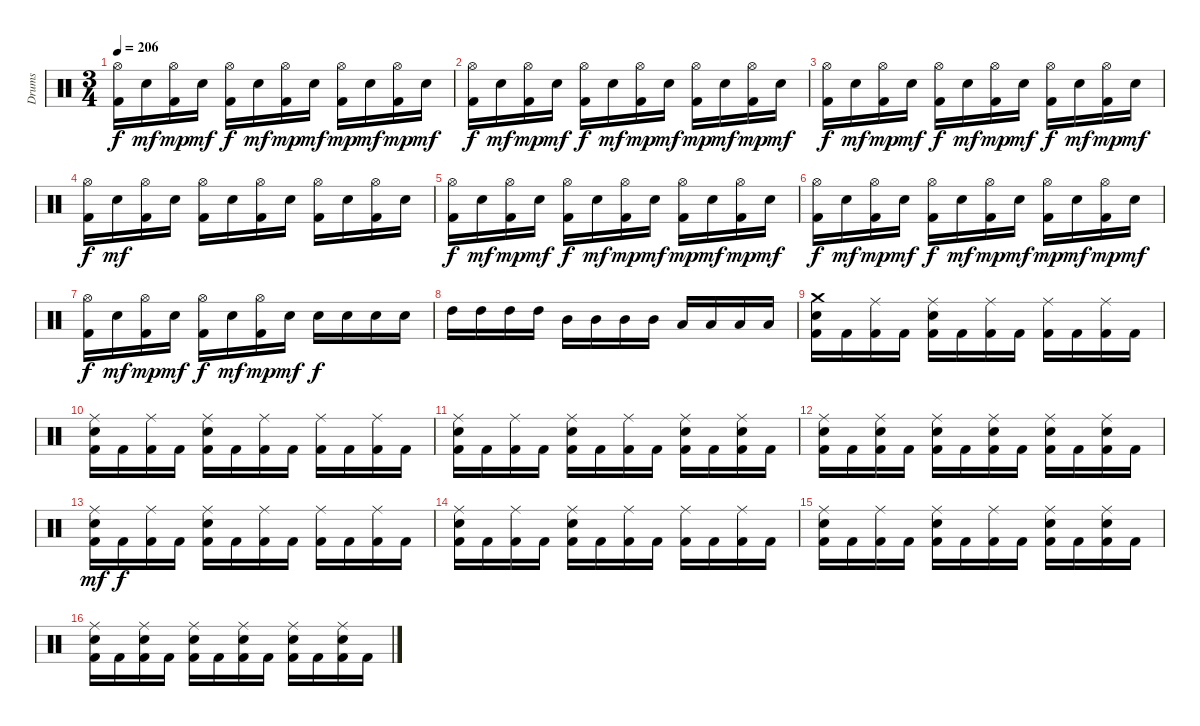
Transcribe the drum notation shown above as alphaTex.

\track ("Drums" "Drums") {instrument percussion}
\staff {score}
\articulation defaults
\ts (3 4)
\tempo 206
\clef neutral
\ks c
("Hi-Hat (open)" "Kick (hit) 2").16{dy f} "Electric Snare (hit)".16{dy mf} ("Hi-Hat (open)" "Kick (hit) 2").16{dy mp} "Electric Snare (hit)".16{dy mf} ("Hi-Hat (open)" "Kick (hit) 2").16{dy f} "Electric Snare (hit)".16{dy mf} ("Hi-Hat (open)" "Kick (hit) 2").16{dy mp} "Electric Snare (hit)".16{dy mf} ("Hi-Hat (open)" "Kick (hit) 2").16{dy mp} "Electric Snare (hit)".16{dy mf} ("Hi-Hat (open)" "Kick (hit) 2").16{dy mp} "Electric Snare (hit)".16{dy mf} |
("Hi-Hat (open)" "Kick (hit) 2").16{dy f} "Electric Snare (hit)".16{dy mf} ("Hi-Hat (open)" "Kick (hit) 2").16{dy mp} "Electric Snare (hit)".16{dy mf} ("Hi-Hat (open)" "Kick (hit) 2").16{dy f} "Electric Snare (hit)".16{dy mf} ("Hi-Hat (open)" "Kick (hit) 2").16{dy mp} "Electric Snare (hit)".16{dy mf} ("Hi-Hat (open)" "Kick (hit) 2").16{dy mp} "Electric Snare (hit)".16{dy mf} ("Hi-Hat (open)" "Kick (hit) 2").16{dy mp} "Electric Snare (hit)".16{dy mf} |
("Hi-Hat (open)" "Kick (hit) 2").16{dy f} "Electric Snare (hit)".16{dy mf} ("Hi-Hat (open)" "Kick (hit) 2").16{dy mp} "Electric Snare (hit)".16{dy mf} ("Hi-Hat (open)" "Kick (hit) 2").16{dy f} "Electric Snare (hit)".16{dy mf} ("Hi-Hat (open)" "Kick (hit) 2").16{dy mp} "Electric Snare (hit)".16{dy mf} ("Hi-Hat (open)" "Kick (hit) 2").16{dy f} "Electric Snare (hit)".16{dy mf} ("Hi-Hat (open)" "Kick (hit) 2").16{dy mp} "Electric Snare (hit)".16{dy mf} |
("Hi-Hat (open)" "Kick (hit) 2").16{dy f} "Electric Snare (hit)".16{dy mf} ("Hi-Hat (open)" "Kick (hit) 2").16 "Electric Snare (hit)".16 ("Hi-Hat (open)" "Kick (hit) 2").16 "Electric Snare (hit)".16 ("Hi-Hat (open)" "Kick (hit) 2").16 "Electric Snare (hit)".16 ("Hi-Hat (open)" "Kick (hit) 2").16 "Electric Snare (hit)".16 ("Hi-Hat (open)" "Kick (hit) 2").16 "Electric Snare (hit)".16 |
("Hi-Hat (open)" "Kick (hit) 2").16{dy f} "Electric Snare (hit)".16{dy mf} ("Hi-Hat (open)" "Kick (hit) 2").16{dy mp} "Electric Snare (hit)".16{dy mf} ("Hi-Hat (open)" "Kick (hit) 2").16{dy f} "Electric Snare (hit)".16{dy mf} ("Hi-Hat (open)" "Kick (hit) 2").16{dy mp} "Electric Snare (hit)".16{dy mf} ("Hi-Hat (open)" "Kick (hit) 2").16{dy mp} "Electric Snare (hit)".16{dy mf} ("Hi-Hat (open)" "Kick (hit) 2").16{dy mp} "Electric Snare (hit)".16{dy mf} |
("Hi-Hat (open)" "Kick (hit) 2").16{dy f} "Electric Snare (hit)".16{dy mf} ("Hi-Hat (open)" "Kick (hit) 2").16{dy mp} "Electric Snare (hit)".16{dy mf} ("Hi-Hat (open)" "Kick (hit) 2").16{dy f} "Electric Snare (hit)".16{dy mf} ("Hi-Hat (open)" "Kick (hit) 2").16{dy mp} "Electric Snare (hit)".16{dy mf} ("Hi-Hat (open)" "Kick (hit) 2").16{dy mp} "Electric Snare (hit)".16{dy mf} ("Hi-Hat (open)" "Kick (hit) 2").16{dy mp} "Electric Snare (hit)".16{dy mf} |
("Hi-Hat (open)" "Kick (hit) 2").16{dy f} "Electric Snare (hit)".16{dy mf} ("Hi-Hat (open)" "Kick (hit) 2").16{dy mp} "Electric Snare (hit)".16{dy mf} ("Hi-Hat (open)" "Kick (hit) 2").16{dy f} "Electric Snare (hit)".16{dy mf} ("Hi-Hat (open)" "Kick (hit) 2").16{dy mp} "Electric Snare (hit)".16{dy mf} "Electric Snare (hit)".16{dy f} "Electric Snare (hit)".16 "Electric Snare (hit)".16 "Electric Snare (hit)".16 |
"High Tom (hit)".16 "High Tom (hit)".16 "High Tom (hit)".16 "High Tom (hit)".16 "Mid Tom (hit)".16 "Mid Tom (hit)".16 "Mid Tom (hit)".16 "Mid Tom (hit)".16 "Low Tom (hit)".16 "Low Tom (hit)".16 "Low Tom (hit)".16 "Low Tom (hit)".16 |
("Crash medium (hit)" "Electric Snare (hit)" "Kick (hit) 2").16 "Kick (hit) 2".16 ("Ride (middle)" "Kick (hit) 2").16 "Kick (hit) 2".16 ("Ride (middle)" "Electric Snare (hit)" "Kick (hit) 2").16 "Kick (hit) 2".16 ("Ride (middle)" "Kick (hit) 2").16 "Kick (hit) 2".16 ("Ride (middle)" "Kick (hit) 2").16 "Kick (hit) 2".16 ("Ride (middle)" "Kick (hit) 2").16 "Kick (hit) 2".16 |
("Ride (middle)" "Electric Snare (hit)" "Kick (hit) 2").16 "Kick (hit) 2".16 ("Ride (middle)" "Kick (hit) 2").16 "Kick (hit) 2".16 ("Ride (middle)" "Electric Snare (hit)" "Kick (hit) 2").16 "Kick (hit) 2".16 ("Ride (middle)" "Kick (hit) 2").16 "Kick (hit) 2".16 ("Ride (middle)" "Kick (hit) 2").16 "Kick (hit) 2".16 ("Ride (middle)" "Kick (hit) 2").16 "Kick (hit) 2".16 |
("Ride (middle)" "Electric Snare (hit)" "Kick (hit) 2").16 "Kick (hit) 2".16 ("Ride (middle)" "Kick (hit) 2").16 "Kick (hit) 2".16 ("Ride (middle)" "Electric Snare (hit)" "Kick (hit) 2").16 "Kick (hit) 2".16 ("Ride (middle)" "Kick (hit) 2").16 "Kick (hit) 2".16 ("Ride (middle)" "Electric Snare (hit)" "Kick (hit) 2").16 "Kick (hit) 2".16 ("Ride (middle)" "Electric Snare (hit)" "Kick (hit) 2").16 "Kick (hit) 2".16 |
("Ride (middle)" "Electric Snare (hit)" "Kick (hit) 2").16 "Kick (hit) 2".16 ("Ride (middle)" "Electric Snare (hit)" "Kick (hit) 2").16 "Kick (hit) 2".16 ("Ride (middle)" "Electric Snare (hit)" "Kick (hit) 2").16 "Kick (hit) 2".16 ("Ride (middle)" "Electric Snare (hit)" "Kick (hit) 2").16 "Kick (hit) 2".16 ("Ride (middle)" "Electric Snare (hit)" "Kick (hit) 2").16 "Kick (hit) 2".16 ("Ride (middle)" "Electric Snare (hit)" "Kick (hit) 2").16 "Kick (hit) 2".16 |
("Ride (middle)" "Electric Snare (hit)" "Kick (hit) 2").16{dy mf} "Kick (hit) 2".16{dy f} ("Ride (middle)" "Kick (hit) 2").16 "Kick (hit) 2".16 ("Ride (middle)" "Electric Snare (hit)" "Kick (hit) 2").16 "Kick (hit) 2".16 ("Ride (middle)" "Kick (hit) 2").16 "Kick (hit) 2".16 ("Ride (middle)" "Kick (hit) 2").16 "Kick (hit) 2".16 ("Ride (middle)" "Kick (hit) 2").16 "Kick (hit) 2".16 |
("Ride (middle)" "Electric Snare (hit)" "Kick (hit) 2").16 "Kick (hit) 2".16 ("Ride (middle)" "Kick (hit) 2").16 "Kick (hit) 2".16 ("Ride (middle)" "Electric Snare (hit)" "Kick (hit) 2").16 "Kick (hit) 2".16 ("Ride (middle)" "Kick (hit) 2").16 "Kick (hit) 2".16 ("Ride (middle)" "Kick (hit) 2").16 "Kick (hit) 2".16 ("Ride (middle)" "Kick (hit) 2").16 "Kick (hit) 2".16 |
("Ride (middle)" "Electric Snare (hit)" "Kick (hit) 2").16 "Kick (hit) 2".16 ("Ride (middle)" "Kick (hit) 2").16 "Kick (hit) 2".16 ("Ride (middle)" "Electric Snare (hit)" "Kick (hit) 2").16 "Kick (hit) 2".16 ("Ride (middle)" "Kick (hit) 2").16 "Kick (hit) 2".16 ("Ride (middle)" "Electric Snare (hit)" "Kick (hit) 2").16 "Kick (hit) 2".16 ("Ride (middle)" "Electric Snare (hit)" "Kick (hit) 2").16 "Kick (hit) 2".16 |
("Ride (middle)" "Electric Snare (hit)" "Kick (hit) 2").16 "Kick (hit) 2".16 ("Ride (middle)" "Electric Snare (hit)" "Kick (hit) 2").16 "Kick (hit) 2".16 ("Ride (middle)" "Electric Snare (hit)" "Kick (hit) 2").16 "Kick (hit) 2".16 ("Ride (middle)" "Electric Snare (hit)" "Kick (hit) 2").16 "Kick (hit) 2".16 ("Ride (middle)" "Electric Snare (hit)" "Kick (hit) 2").16 "Kick (hit) 2".16 ("Ride (middle)" "Electric Snare (hit)" "Kick (hit) 2").16 "Kick (hit) 2".16
